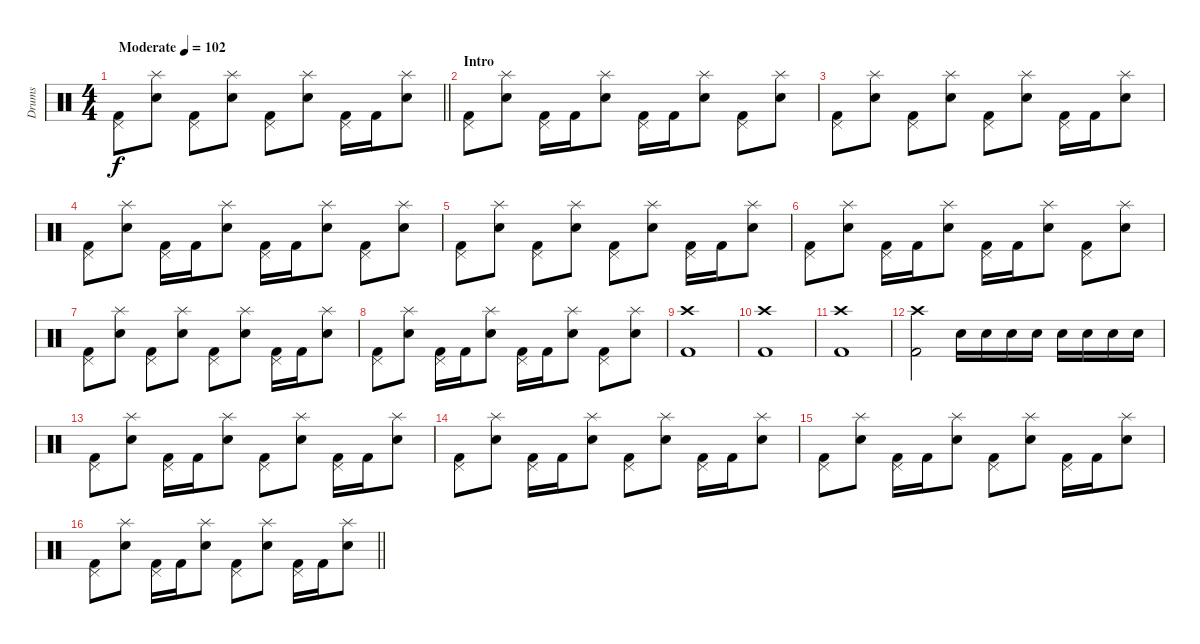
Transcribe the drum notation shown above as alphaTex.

\track ("Drums" "Drums") {instrument percussion}
\staff {score}
\articulation defaults
\ts (4 4)
\tempo (102 "Moderate")
\clef neutral
\barLineRight lightlight
\ks c
("Pedal Hi-Hat (hit)" "Kick (hit) 2").8{dy f} ("Splash (hit)" "Electric Snare (hit)").8 ("Pedal Hi-Hat (hit)" "Kick (hit) 2").8 ("Splash (hit)" "Electric Snare (hit)").8 ("Pedal Hi-Hat (hit)" "Kick (hit) 2").8 ("Splash (hit)" "Electric Snare (hit)").8 ("Pedal Hi-Hat (hit)" "Kick (hit) 2").16 "Kick (hit) 2".16 ("Splash (hit)" "Electric Snare (hit)").8 |
\section ("" "Intro")
("Pedal Hi-Hat (hit)" "Kick (hit) 2").8 ("Splash (hit)" "Electric Snare (hit)").8 ("Pedal Hi-Hat (hit)" "Kick (hit) 2").16 "Kick (hit) 2".16 ("Splash (hit)" "Electric Snare (hit)").8 ("Pedal Hi-Hat (hit)" "Kick (hit) 2").16 "Kick (hit) 2".16 ("Splash (hit)" "Electric Snare (hit)").8 ("Pedal Hi-Hat (hit)" "Kick (hit) 2").8 ("Splash (hit)" "Electric Snare (hit)").8 |
("Pedal Hi-Hat (hit)" "Kick (hit) 2").8 ("Splash (hit)" "Electric Snare (hit)").8 ("Pedal Hi-Hat (hit)" "Kick (hit) 2").8 ("Splash (hit)" "Electric Snare (hit)").8 ("Pedal Hi-Hat (hit)" "Kick (hit) 2").8 ("Splash (hit)" "Electric Snare (hit)").8 ("Pedal Hi-Hat (hit)" "Kick (hit) 2").16 "Kick (hit) 2".16 ("Splash (hit)" "Electric Snare (hit)").8 |
("Pedal Hi-Hat (hit)" "Kick (hit) 2").8 ("Splash (hit)" "Electric Snare (hit)").8 ("Pedal Hi-Hat (hit)" "Kick (hit) 2").16 "Kick (hit) 2".16 ("Splash (hit)" "Electric Snare (hit)").8 ("Pedal Hi-Hat (hit)" "Kick (hit) 2").16 "Kick (hit) 2".16 ("Splash (hit)" "Electric Snare (hit)").8 ("Pedal Hi-Hat (hit)" "Kick (hit) 2").8 ("Splash (hit)" "Electric Snare (hit)").8 |
("Pedal Hi-Hat (hit)" "Kick (hit) 2").8 ("Splash (hit)" "Electric Snare (hit)").8 ("Pedal Hi-Hat (hit)" "Kick (hit) 2").8 ("Splash (hit)" "Electric Snare (hit)").8 ("Pedal Hi-Hat (hit)" "Kick (hit) 2").8 ("Splash (hit)" "Electric Snare (hit)").8 ("Pedal Hi-Hat (hit)" "Kick (hit) 2").16 "Kick (hit) 2".16 ("Splash (hit)" "Electric Snare (hit)").8 |
("Pedal Hi-Hat (hit)" "Kick (hit) 2").8 ("Splash (hit)" "Electric Snare (hit)").8 ("Pedal Hi-Hat (hit)" "Kick (hit) 2").16 "Kick (hit) 2".16 ("Splash (hit)" "Electric Snare (hit)").8 ("Pedal Hi-Hat (hit)" "Kick (hit) 2").16 "Kick (hit) 2".16 ("Splash (hit)" "Electric Snare (hit)").8 ("Pedal Hi-Hat (hit)" "Kick (hit) 2").8 ("Splash (hit)" "Electric Snare (hit)").8 |
("Pedal Hi-Hat (hit)" "Kick (hit) 2").8 ("Splash (hit)" "Electric Snare (hit)").8 ("Pedal Hi-Hat (hit)" "Kick (hit) 2").8 ("Splash (hit)" "Electric Snare (hit)").8 ("Pedal Hi-Hat (hit)" "Kick (hit) 2").8 ("Splash (hit)" "Electric Snare (hit)").8 ("Pedal Hi-Hat (hit)" "Kick (hit) 2").16 "Kick (hit) 2".16 ("Splash (hit)" "Electric Snare (hit)").8 |
("Pedal Hi-Hat (hit)" "Kick (hit) 2").8 ("Splash (hit)" "Electric Snare (hit)").8 ("Pedal Hi-Hat (hit)" "Kick (hit) 2").16 "Kick (hit) 2".16 ("Splash (hit)" "Electric Snare (hit)").8 ("Pedal Hi-Hat (hit)" "Kick (hit) 2").16 "Kick (hit) 2".16 ("Splash (hit)" "Electric Snare (hit)").8 ("Pedal Hi-Hat (hit)" "Kick (hit) 2").8 ("Splash (hit)" "Electric Snare (hit)").8 |
("Crash high (hit)" "Kick (hit) 2").1 |
("Crash high (hit)" "Kick (hit) 2").1 |
("Crash high (hit)" "Kick (hit) 2").1 |
("Crash high (hit)" "Kick (hit) 2").2 "Electric Snare (hit)".16 "Electric Snare (hit)".16 "Electric Snare (hit)".16 "Electric Snare (hit)".16 "Electric Snare (hit)".16 "Electric Snare (hit)".16 "Electric Snare (hit)".16 "Electric Snare (hit)".16 |
("Pedal Hi-Hat (hit)" "Kick (hit) 2").8 ("Splash (hit)" "Electric Snare (hit)").8 ("Pedal Hi-Hat (hit)" "Kick (hit) 2").16 "Kick (hit) 2".16 ("Splash (hit)" "Electric Snare (hit)").8 ("Pedal Hi-Hat (hit)" "Kick (hit) 2").8 ("Splash (hit)" "Electric Snare (hit)").8 ("Pedal Hi-Hat (hit)" "Kick (hit) 2").16 "Kick (hit) 2".16 ("Splash (hit)" "Electric Snare (hit)").8 |
("Pedal Hi-Hat (hit)" "Kick (hit) 2").8 ("Splash (hit)" "Electric Snare (hit)").8 ("Pedal Hi-Hat (hit)" "Kick (hit) 2").16 "Kick (hit) 2".16 ("Splash (hit)" "Electric Snare (hit)").8 ("Pedal Hi-Hat (hit)" "Kick (hit) 2").8 ("Splash (hit)" "Electric Snare (hit)").8 ("Pedal Hi-Hat (hit)" "Kick (hit) 2").16 "Kick (hit) 2".16 ("Splash (hit)" "Electric Snare (hit)").8 |
("Pedal Hi-Hat (hit)" "Kick (hit) 2").8 ("Splash (hit)" "Electric Snare (hit)").8 ("Pedal Hi-Hat (hit)" "Kick (hit) 2").16 "Kick (hit) 2".16 ("Splash (hit)" "Electric Snare (hit)").8 ("Pedal Hi-Hat (hit)" "Kick (hit) 2").8 ("Splash (hit)" "Electric Snare (hit)").8 ("Pedal Hi-Hat (hit)" "Kick (hit) 2").16 "Kick (hit) 2".16 ("Splash (hit)" "Electric Snare (hit)").8 |
\barLineRight lightlight
("Pedal Hi-Hat (hit)" "Kick (hit) 2").8 ("Splash (hit)" "Electric Snare (hit)").8 ("Pedal Hi-Hat (hit)" "Kick (hit) 2").16 "Kick (hit) 2".16 ("Splash (hit)" "Electric Snare (hit)").8 ("Pedal Hi-Hat (hit)" "Kick (hit) 2").8 ("Splash (hit)" "Electric Snare (hit)").8 ("Pedal Hi-Hat (hit)" "Kick (hit) 2").16 "Kick (hit) 2".16 ("Splash (hit)" "Electric Snare (hit)").8
